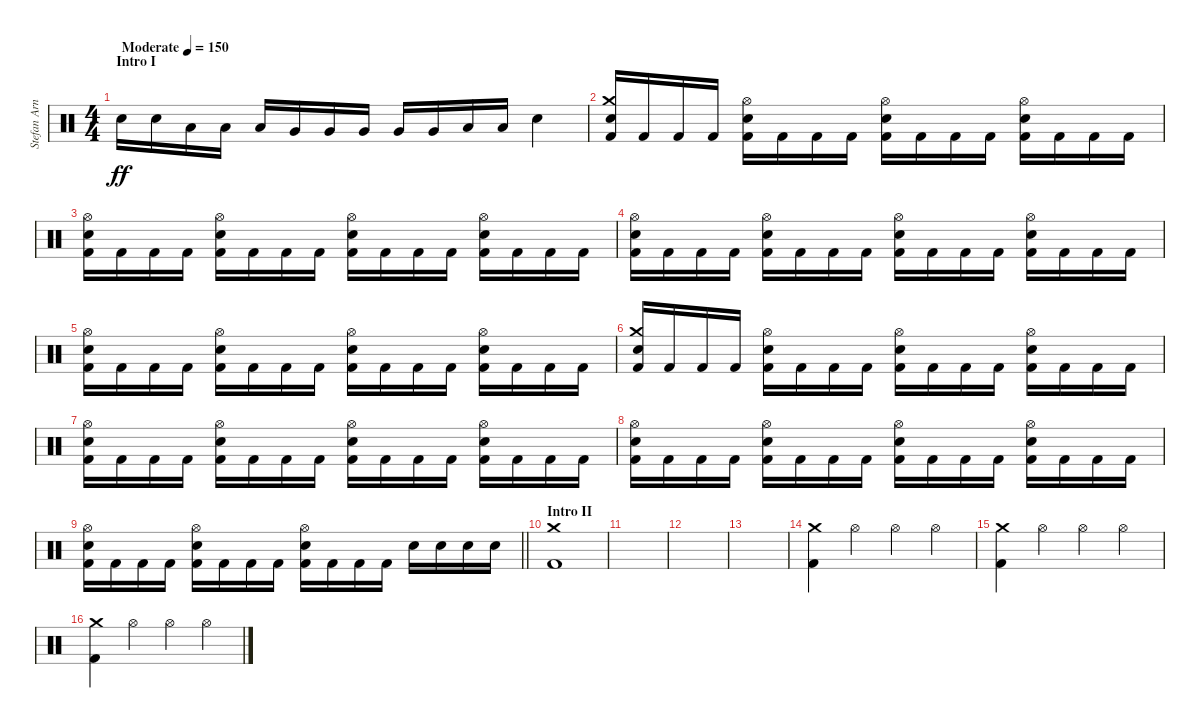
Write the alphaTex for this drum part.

\track ("Stefan Arnold" "Stefan Arn") {instrument percussion}
\staff {score}
\articulation defaults
\ts (4 4)
\section ("" "Intro I")
\tempo (150 "Moderate")
\clef neutral
\ks c "Electric Snare (hit)".16{dy ff} "Electric Snare (hit)".16 "Low Tom (hit)".16 "Low Tom (hit)".16 "Low Tom (hit)".16 "Very Low Tom (hit)".16 "Very Low Tom (hit)".16 "Very Low Tom (hit)".16 "Very Low Tom (hit)".16 "Very Low Tom (hit)".16 "Low Floor Tom (hit)".16 "Low Floor Tom (hit)".16 "Electric Snare (hit)".4
|
("Crash medium (hit)" "Electric Snare (hit)" "Kick (hit) 2").16 "Kick (hit) 2".16 "Kick (hit) 2".16 "Kick (hit) 2".16 ("Hi-Hat (open)" "Electric Snare (hit)" "Kick (hit) 2").16 "Kick (hit) 2".16 "Kick (hit) 2".16 "Kick (hit) 2".16 ("Hi-Hat (open)" "Electric Snare (hit)" "Kick (hit) 2").16 "Kick (hit) 2".16 "Kick (hit) 2".16 "Kick (hit) 2".16 ("Hi-Hat (open)" "Electric Snare (hit)" "Kick (hit) 2").16 "Kick (hit) 2".16 "Kick (hit) 2".16 "Kick (hit) 2".16 |
("Hi-Hat (open)" "Electric Snare (hit)" "Kick (hit) 2").16 "Kick (hit) 2".16 "Kick (hit) 2".16 "Kick (hit) 2".16 ("Hi-Hat (open)" "Electric Snare (hit)" "Kick (hit) 2").16 "Kick (hit) 2".16 "Kick (hit) 2".16 "Kick (hit) 2".16 ("Hi-Hat (open)" "Electric Snare (hit)" "Kick (hit) 2").16 "Kick (hit) 2".16 "Kick (hit) 2".16 "Kick (hit) 2".16 ("Hi-Hat (open)" "Electric Snare (hit)" "Kick (hit) 2").16 "Kick (hit) 2".16 "Kick (hit) 2".16 "Kick (hit) 2".16 |
("Hi-Hat (open)" "Electric Snare (hit)" "Kick (hit) 2").16 "Kick (hit) 2".16 "Kick (hit) 2".16 "Kick (hit) 2".16 ("Hi-Hat (open)" "Electric Snare (hit)" "Kick (hit) 2").16 "Kick (hit) 2".16 "Kick (hit) 2".16 "Kick (hit) 2".16 ("Hi-Hat (open)" "Electric Snare (hit)" "Kick (hit) 2").16 "Kick (hit) 2".16 "Kick (hit) 2".16 "Kick (hit) 2".16 ("Hi-Hat (open)" "Electric Snare (hit)" "Kick (hit) 2").16 "Kick (hit) 2".16 "Kick (hit) 2".16 "Kick (hit) 2".16 |
("Hi-Hat (open)" "Electric Snare (hit)" "Kick (hit) 2").16 "Kick (hit) 2".16 "Kick (hit) 2".16 "Kick (hit) 2".16 ("Hi-Hat (open)" "Electric Snare (hit)" "Kick (hit) 2").16 "Kick (hit) 2".16 "Kick (hit) 2".16 "Kick (hit) 2".16 ("Hi-Hat (open)" "Electric Snare (hit)" "Kick (hit) 2").16 "Kick (hit) 2".16 "Kick (hit) 2".16 "Kick (hit) 2".16 ("Hi-Hat (open)" "Electric Snare (hit)" "Kick (hit) 2").16 "Kick (hit) 2".16 "Kick (hit) 2".16 "Kick (hit) 2".16 |
("Crash medium (hit)" "Electric Snare (hit)" "Kick (hit) 2").16 "Kick (hit) 2".16 "Kick (hit) 2".16 "Kick (hit) 2".16 ("Hi-Hat (open)" "Electric Snare (hit)" "Kick (hit) 2").16 "Kick (hit) 2".16 "Kick (hit) 2".16 "Kick (hit) 2".16 ("Hi-Hat (open)" "Electric Snare (hit)" "Kick (hit) 2").16 "Kick (hit) 2".16 "Kick (hit) 2".16 "Kick (hit) 2".16 ("Hi-Hat (open)" "Electric Snare (hit)" "Kick (hit) 2").16 "Kick (hit) 2".16 "Kick (hit) 2".16 "Kick (hit) 2".16 |
("Hi-Hat (open)" "Electric Snare (hit)" "Kick (hit) 2").16 "Kick (hit) 2".16 "Kick (hit) 2".16 "Kick (hit) 2".16 ("Hi-Hat (open)" "Electric Snare (hit)" "Kick (hit) 2").16 "Kick (hit) 2".16 "Kick (hit) 2".16 "Kick (hit) 2".16 ("Hi-Hat (open)" "Electric Snare (hit)" "Kick (hit) 2").16 "Kick (hit) 2".16 "Kick (hit) 2".16 "Kick (hit) 2".16 ("Hi-Hat (open)" "Electric Snare (hit)" "Kick (hit) 2").16 "Kick (hit) 2".16 "Kick (hit) 2".16 "Kick (hit) 2".16 |
("Hi-Hat (open)" "Electric Snare (hit)" "Kick (hit) 2").16 "Kick (hit) 2".16 "Kick (hit) 2".16 "Kick (hit) 2".16 ("Hi-Hat (open)" "Electric Snare (hit)" "Kick (hit) 2").16 "Kick (hit) 2".16 "Kick (hit) 2".16 "Kick (hit) 2".16 ("Hi-Hat (open)" "Electric Snare (hit)" "Kick (hit) 2").16 "Kick (hit) 2".16 "Kick (hit) 2".16 "Kick (hit) 2".16 ("Hi-Hat (open)" "Electric Snare (hit)" "Kick (hit) 2").16 "Kick (hit) 2".16 "Kick (hit) 2".16 "Kick (hit) 2".16 |
\barLineRight lightlight
("Hi-Hat (open)" "Electric Snare (hit)" "Kick (hit) 2").16 "Kick (hit) 2".16 "Kick (hit) 2".16 "Kick (hit) 2".16 ("Hi-Hat (open)" "Electric Snare (hit)" "Kick (hit) 2").16 "Kick (hit) 2".16 "Kick (hit) 2".16 "Kick (hit) 2".16 ("Hi-Hat (open)" "Electric Snare (hit)" "Kick (hit) 2").16 "Kick (hit) 2".16 "Kick (hit) 2".16 "Kick (hit) 2".16 "Electric Snare (hit)".16 "Electric Snare (hit)".16 "Electric Snare (hit)".16 "Electric Snare (hit)".16 |
\section ("" "Intro II")
("Crash medium (hit)" "Kick (hit) 2").1 |
|
|
|
("Crash medium (hit)" "Kick (hit) 2").4 "Hi-Hat (open)".4 "Hi-Hat (open)".4 "Hi-Hat (open)".4 |
("Crash medium (hit)" "Kick (hit) 2").4 "Hi-Hat (open)".4 "Hi-Hat (open)".4 "Hi-Hat (open)".4 |
("Crash medium (hit)" "Kick (hit) 2").4 "Hi-Hat (open)".4 "Hi-Hat (open)".4 "Hi-Hat (open)".4
